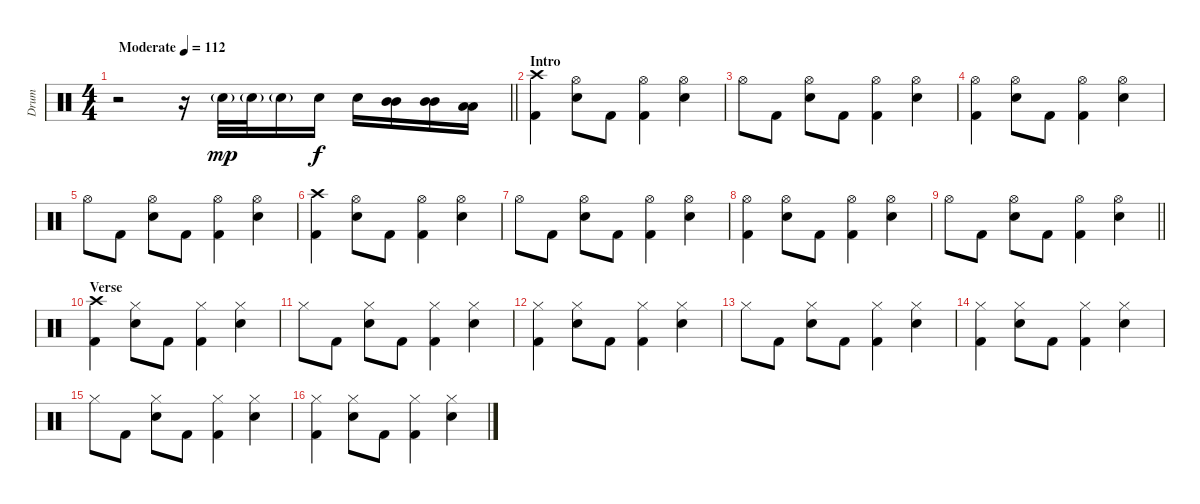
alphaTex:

\track ("Drum" "Drum") {instrument percussion}
\staff {score}
\articulation defaults
\ts (4 4)
\tempo (112 "Moderate")
\clef neutral
\barLineRight lightlight
\ks c
r.2{dy mp} r.16 "Electric Snare (hit)"{g}.32 "Electric Snare (hit)"{g}.32 "Electric Snare (hit)"{g}.16 "Electric Snare (hit)".16{dy f} "Electric Snare (hit)".16 ("Mid Tom (hit)" "Mid Tom (hit)").16 ("Mid Tom (hit)" "Mid Tom (hit)").16 ("Low Tom (hit)" "Low Tom (hit)").16 |
\section ("" "Intro")
("Crash high (hit)" "Kick (hit) 2").4 ("Hi-Hat (open)" "Electric Snare (hit)").8 "Kick (hit) 2".8 ("Hi-Hat (open)" "Kick (hit) 2").4 ("Hi-Hat (open)" "Electric Snare (hit)").4 |
"Hi-Hat (open)".8 "Kick (hit) 2".8 ("Hi-Hat (open)" "Electric Snare (hit)").8 "Kick (hit) 2".8 ("Hi-Hat (open)" "Kick (hit) 2").4 ("Hi-Hat (open)" "Electric Snare (hit)").4 |
("Hi-Hat (open)" "Kick (hit) 2").4 ("Hi-Hat (open)" "Electric Snare (hit)").8 "Kick (hit) 2".8 ("Hi-Hat (open)" "Kick (hit) 2").4 ("Hi-Hat (open)" "Electric Snare (hit)").4 |
"Hi-Hat (open)".8 "Kick (hit) 2".8 ("Hi-Hat (open)" "Electric Snare (hit)").8 "Kick (hit) 2".8 ("Hi-Hat (open)" "Kick (hit) 2").4 ("Hi-Hat (open)" "Electric Snare (hit)").4 |
("Crash high (hit)" "Kick (hit) 2").4 ("Hi-Hat (open)" "Electric Snare (hit)").8 "Kick (hit) 2".8 ("Hi-Hat (open)" "Kick (hit) 2").4 ("Hi-Hat (open)" "Electric Snare (hit)").4 |
"Hi-Hat (open)".8 "Kick (hit) 2".8 ("Hi-Hat (open)" "Electric Snare (hit)").8 "Kick (hit) 2".8 ("Hi-Hat (open)" "Kick (hit) 2").4 ("Hi-Hat (open)" "Electric Snare (hit)").4 |
("Hi-Hat (open)" "Kick (hit) 2").4 ("Hi-Hat (open)" "Electric Snare (hit)").8 "Kick (hit) 2".8 ("Hi-Hat (open)" "Kick (hit) 2").4 ("Hi-Hat (open)" "Electric Snare (hit)").4 |
\barLineRight lightlight "Hi-Hat (open)".8 "Kick (hit) 2".8
("Hi-Hat (open)" "Electric Snare (hit)").8 "Kick (hit) 2".8 ("Hi-Hat (open)" "Kick (hit) 2").4 ("Hi-Hat (open)" "Electric Snare (hit)").4 |
\section ("" "Verse")
("Crash high (hit)" "Kick (hit) 2").4 ("Hi-Hat (closed)" "Electric Snare (hit)").8 "Kick (hit) 2".8 ("Hi-Hat (closed)" "Kick (hit) 2").4 ("Hi-Hat (closed)" "Electric Snare (hit)").4 |
"Hi-Hat (closed)".8 "Kick (hit) 2".8 ("Hi-Hat (closed)" "Electric Snare (hit)").8 "Kick (hit) 2".8 ("Hi-Hat (closed)" "Kick (hit) 2").4 ("Hi-Hat (closed)" "Electric Snare (hit)").4 |
("Hi-Hat (closed)" "Kick (hit) 2").4 ("Hi-Hat (closed)" "Electric Snare (hit)").8 "Kick (hit) 2".8 ("Hi-Hat (closed)" "Kick (hit) 2").4 ("Hi-Hat (closed)" "Electric Snare (hit)").4 |
"Hi-Hat (closed)".8 "Kick (hit) 2".8 ("Hi-Hat (closed)" "Electric Snare (hit)").8 "Kick (hit) 2".8 ("Hi-Hat (closed)" "Kick (hit) 2").4 ("Hi-Hat (closed)" "Electric Snare (hit)").4 |
("Hi-Hat (closed)" "Kick (hit) 2").4 ("Hi-Hat (closed)" "Electric Snare (hit)").8 "Kick (hit) 2".8 ("Hi-Hat (closed)" "Kick (hit) 2").4 ("Hi-Hat (closed)" "Electric Snare (hit)").4 |
"Hi-Hat (closed)".8 "Kick (hit) 2".8 ("Hi-Hat (closed)" "Electric Snare (hit)").8 "Kick (hit) 2".8 ("Hi-Hat (closed)" "Kick (hit) 2").4 ("Hi-Hat (closed)" "Electric Snare (hit)").4 |
("Hi-Hat (closed)" "Kick (hit) 2").4 ("Hi-Hat (closed)" "Electric Snare (hit)").8 "Kick (hit) 2".8 ("Hi-Hat (closed)" "Kick (hit) 2").4 ("Hi-Hat (closed)" "Electric Snare (hit)").4
